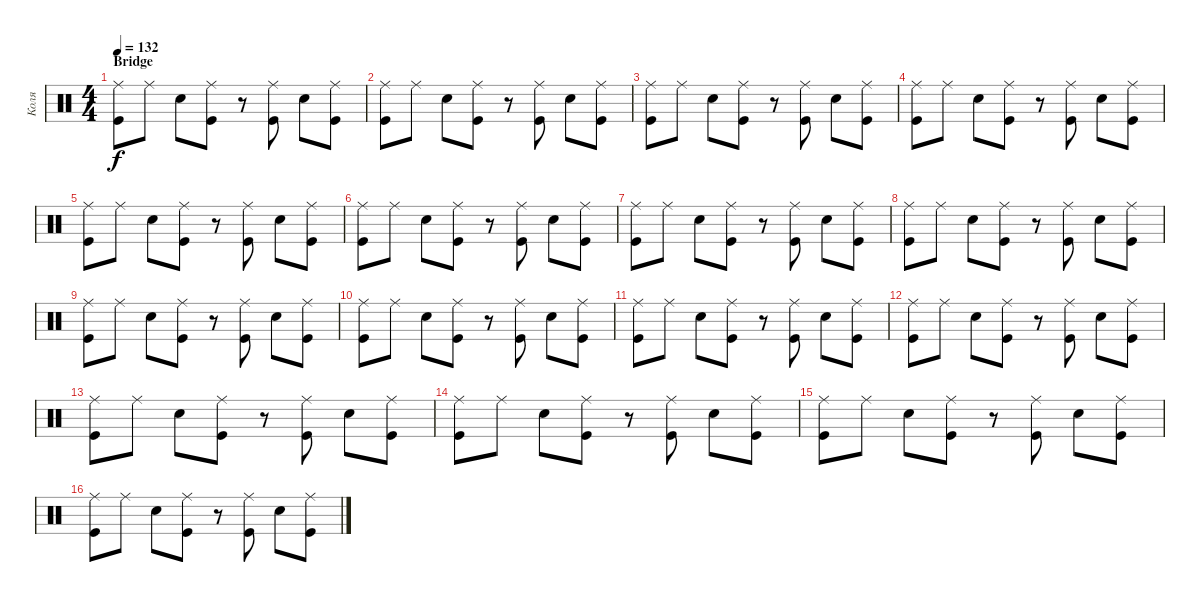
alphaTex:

\track ("Коля" "Коля") {instrument percussion}
\staff {score}
\articulation defaults
\ts (4 4)
\section ("" "Bridge")
\tempo 132
\clef neutral
\ks c
("Ride (middle)" "Kick (hit)").8{dy f} "Ride (middle)".8 "Snare (hit) 2".8 ("Ride (middle)" "Kick (hit)").8 r.8 ("Ride (middle)" "Kick (hit)").8 "Snare (hit) 2".8 ("Ride (middle)" "Kick (hit)").8 |
("Ride (middle)" "Kick (hit)").8 "Ride (middle)".8 "Snare (hit) 2".8 ("Ride (middle)" "Kick (hit)").8 r.8 ("Ride (middle)" "Kick (hit)").8 "Snare (hit) 2".8 ("Ride (middle)" "Kick (hit)").8 |
("Ride (middle)" "Kick (hit)").8 "Ride (middle)".8 "Snare (hit) 2".8 ("Ride (middle)" "Kick (hit)").8 r.8 ("Ride (middle)" "Kick (hit)").8 "Snare (hit) 2".8 ("Ride (middle)" "Kick (hit)").8 |
("Ride (middle)" "Kick (hit)").8 "Ride (middle)".8 "Snare (hit) 2".8 ("Ride (middle)" "Kick (hit)").8 r.8 ("Ride (middle)" "Kick (hit)").8 "Snare (hit) 2".8 ("Ride (middle)" "Kick (hit)").8 |
("Ride (middle)" "Kick (hit)").8 "Ride (middle)".8 "Snare (hit) 2".8 ("Ride (middle)" "Kick (hit)").8 r.8 ("Ride (middle)" "Kick (hit)").8 "Snare (hit) 2".8 ("Ride (middle)" "Kick (hit)").8 |
("Ride (middle)" "Kick (hit)").8 "Ride (middle)".8 "Snare (hit) 2".8 ("Ride (middle)" "Kick (hit)").8 r.8 ("Ride (middle)" "Kick (hit)").8 "Snare (hit) 2".8 ("Ride (middle)" "Kick (hit)").8 |
("Ride (middle)" "Kick (hit)").8 "Ride (middle)".8 "Snare (hit) 2".8 ("Ride (middle)" "Kick (hit)").8 r.8 ("Ride (middle)" "Kick (hit)").8 "Snare (hit) 2".8 ("Ride (middle)" "Kick (hit)").8 |
("Ride (middle)" "Kick (hit)").8 "Ride (middle)".8 "Snare (hit) 2".8 ("Ride (middle)" "Kick (hit)").8 r.8 ("Ride (middle)" "Kick (hit)").8 "Snare (hit) 2".8 ("Ride (middle)" "Kick (hit)").8 |
("Ride (middle)" "Kick (hit)").8 "Ride (middle)".8 "Snare (hit) 2".8 ("Ride (middle)" "Kick (hit)").8 r.8 ("Ride (middle)" "Kick (hit)").8 "Snare (hit) 2".8 ("Ride (middle)" "Kick (hit)").8 |
("Ride (middle)" "Kick (hit)").8 "Ride (middle)".8 "Snare (hit) 2".8 ("Ride (middle)" "Kick (hit)").8 r.8 ("Ride (middle)" "Kick (hit)").8 "Snare (hit) 2".8 ("Ride (middle)" "Kick (hit)").8 |
("Ride (middle)" "Kick (hit)").8 "Ride (middle)".8 "Snare (hit) 2".8 ("Ride (middle)" "Kick (hit)").8 r.8 ("Ride (middle)" "Kick (hit)").8 "Snare (hit) 2".8 ("Ride (middle)" "Kick (hit)").8 |
("Ride (middle)" "Kick (hit)").8 "Ride (middle)".8 "Snare (hit) 2".8 ("Ride (middle)" "Kick (hit)").8 r.8 ("Ride (middle)" "Kick (hit)").8 "Snare (hit) 2".8 ("Ride (middle)" "Kick (hit)").8 |
("Ride (middle)" "Kick (hit)").8 "Ride (middle)".8 "Snare (hit) 2".8 ("Ride (middle)" "Kick (hit)").8 r.8 ("Ride (middle)" "Kick (hit)").8 "Snare (hit) 2".8 ("Ride (middle)" "Kick (hit)").8 |
("Ride (middle)" "Kick (hit)").8 "Ride (middle)".8 "Snare (hit) 2".8 ("Ride (middle)" "Kick (hit)").8 r.8 ("Ride (middle)" "Kick (hit)").8 "Snare (hit) 2".8 ("Ride (middle)" "Kick (hit)").8 |
("Ride (middle)" "Kick (hit)").8 "Ride (middle)".8 "Snare (hit) 2".8 ("Ride (middle)" "Kick (hit)").8 r.8 ("Ride (middle)" "Kick (hit)").8 "Snare (hit) 2".8 ("Ride (middle)" "Kick (hit)").8 |
("Ride (middle)" "Kick (hit)").8 "Ride (middle)".8 "Snare (hit) 2".8 ("Ride (middle)" "Kick (hit)").8 r.8 ("Ride (middle)" "Kick (hit)").8 "Snare (hit) 2".8 ("Ride (middle)" "Kick (hit)").8
